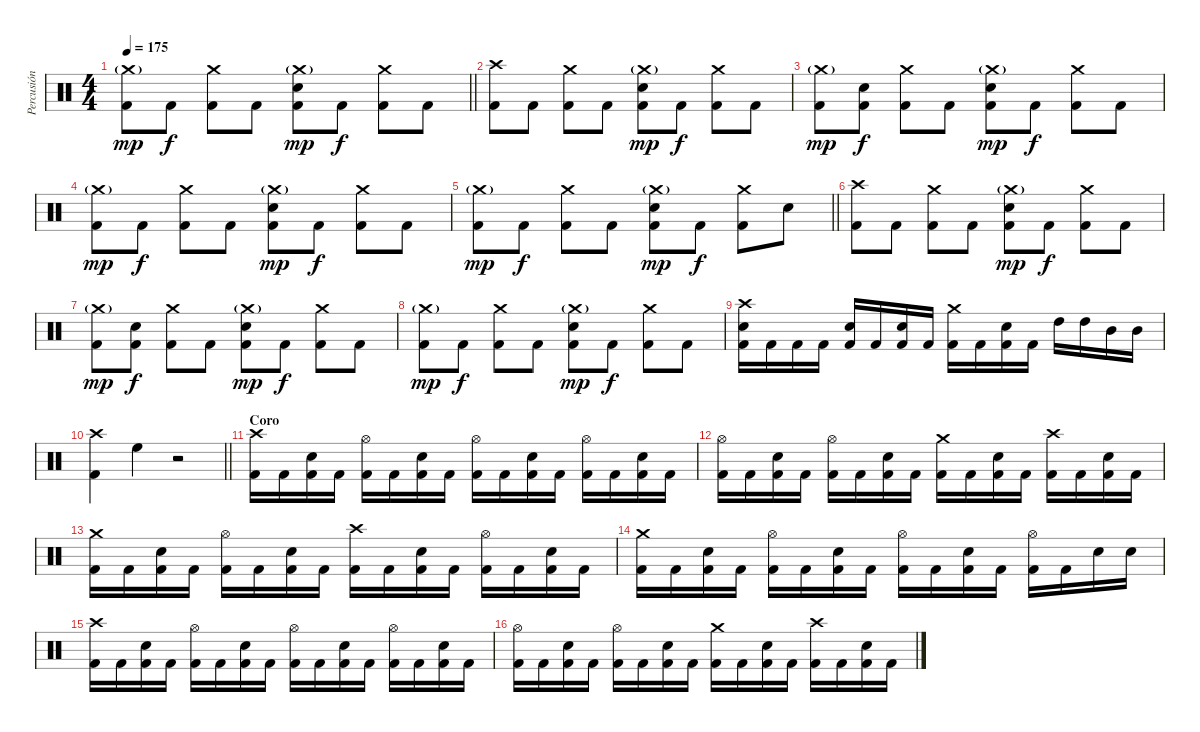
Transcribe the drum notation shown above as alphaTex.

\track ("Percusión" "Percusión") {instrument percussion}
\staff {score}
\articulation defaults
\ts (4 4)
\tempo 175
\clef neutral
\barLineRight lightlight
\ks c
("Crash medium (hit)"{g} "Kick (hit) 2").8{dy mp} "Kick (hit) 2".8{dy f} ("Crash medium (hit)" "Kick (hit) 2").8 "Kick (hit) 2".8 ("Crash medium (hit)"{g} "Snare (hit) 2" "Kick (hit) 2").8{dy mp} "Kick (hit) 2".8{dy f} ("Crash medium (hit)" "Kick (hit) 2").8 "Kick (hit) 2".8 |
\section ("" "")
("Crash high (hit)" "Kick (hit) 2").8 "Kick (hit) 2".8 ("Crash medium (hit)" "Kick (hit) 2").8 "Kick (hit) 2".8 ("Crash medium (hit)"{g} "Snare (hit) 2" "Kick (hit) 2").8{dy mp} "Kick (hit) 2".8{dy f} ("Crash medium (hit)" "Kick (hit) 2").8 "Kick (hit) 2".8 |
("Crash medium (hit)"{g} "Kick (hit) 2").8{dy mp} ("Snare (hit) 2" "Kick (hit) 2").8{dy f} ("Crash medium (hit)" "Kick (hit) 2").8 "Kick (hit) 2".8 ("Crash medium (hit)"{g} "Snare (hit) 2" "Kick (hit) 2").8{dy mp} "Kick (hit) 2".8{dy f} ("Crash medium (hit)" "Kick (hit) 2").8 "Kick (hit) 2".8 |
("Crash medium (hit)"{g} "Kick (hit) 2").8{dy mp} "Kick (hit) 2".8{dy f} ("Crash medium (hit)" "Kick (hit) 2").8 "Kick (hit) 2".8 ("Crash medium (hit)"{g} "Snare (hit) 2" "Kick (hit) 2").8{dy mp} "Kick (hit) 2".8{dy f} ("Crash medium (hit)" "Kick (hit) 2").8 "Kick (hit) 2".8 |
\barLineRight lightlight
("Crash medium (hit)"{g} "Kick (hit) 2").8{dy mp} "Kick (hit) 2".8{dy f} ("Crash medium (hit)" "Kick (hit) 2").8 "Kick (hit) 2".8 ("Crash medium (hit)"{g} "Snare (hit) 2" "Kick (hit) 2").8{dy mp} "Kick (hit) 2".8{dy f} ("Crash medium (hit)" "Kick (hit) 2").8 "Snare (hit) 2".8 |
\section ("" "")
("Crash high (hit)" "Kick (hit) 2").8 "Kick (hit) 2".8 ("Crash medium (hit)" "Kick (hit) 2").8 "Kick (hit) 2".8 ("Crash medium (hit)"{g} "Snare (hit) 2" "Kick (hit) 2").8{dy mp} "Kick (hit) 2".8{dy f} ("Crash medium (hit)" "Kick (hit) 2").8 "Kick (hit) 2".8 |
("Crash medium (hit)"{g} "Kick (hit) 2").8{dy mp} ("Snare (hit) 2" "Kick (hit) 2").8{dy f} ("Crash medium (hit)" "Kick (hit) 2").8 "Kick (hit) 2".8 ("Crash medium (hit)"{g} "Snare (hit) 2" "Kick (hit) 2").8{dy mp} "Kick (hit) 2".8{dy f} ("Crash medium (hit)" "Kick (hit) 2").8 "Kick (hit) 2".8 |
("Crash medium (hit)"{g} "Kick (hit) 2").8{dy mp} "Kick (hit) 2".8{dy f} ("Crash medium (hit)" "Kick (hit) 2").8 "Kick (hit) 2".8 ("Crash medium (hit)"{g} "Snare (hit) 2" "Kick (hit) 2").8{dy mp} "Kick (hit) 2".8{dy f} ("Crash medium (hit)" "Kick (hit) 2").8 "Kick (hit) 2".8 |
("Crash high (hit)" "Snare (hit) 2" "Kick (hit) 2").16 "Kick (hit) 2".16 "Kick (hit) 2".16 "Kick (hit) 2".16 ("Snare (hit) 2" "Kick (hit) 2").16 "Kick (hit) 2".16 ("Snare (hit) 2" "Kick (hit) 2").16 "Kick (hit) 2".16 ("Crash medium (hit)" "Kick (hit) 2").16 "Kick (hit) 2".16 ("Snare (hit) 2" "Kick (hit) 2").16 "Kick (hit) 2".16 "High Tom (hit)".16 "High Tom (hit)".16 "Mid Tom (hit)".16 "Mid Tom (hit)".16 |
\barLineRight lightlight
("Crash high (hit)" "Kick (hit) 2").4 "High Floor Tom (hit)".4 r.2 |
\section ("" "Coro")
("Crash high (hit)" "Kick (hit) 2").16 "Kick (hit) 2".16 ("Snare (hit) 2" "Kick (hit) 2").16 "Kick (hit) 2".16 ("Hi-Hat (open)" "Kick (hit) 2").16 "Kick (hit) 2".16 ("Snare (hit) 2" "Kick (hit) 2").16 "Kick (hit) 2".16 ("Hi-Hat (open)" "Kick (hit) 2").16 "Kick (hit) 2".16 ("Snare (hit) 2" "Kick (hit) 2").16 "Kick (hit) 2".16 ("Hi-Hat (open)" "Kick (hit) 2").16 "Kick (hit) 2".16 ("Snare (hit) 2" "Kick (hit) 2").16 "Kick (hit) 2".16 |
("Hi-Hat (open)" "Kick (hit) 2").16 "Kick (hit) 2".16 ("Snare (hit) 2" "Kick (hit) 2").16 "Kick (hit) 2".16 ("Hi-Hat (open)" "Kick (hit) 2").16 "Kick (hit) 2".16 ("Snare (hit) 2" "Kick (hit) 2").16 "Kick (hit) 2".16 ("Crash medium (hit)" "Kick (hit) 2").16 "Kick (hit) 2".16 ("Snare (hit) 2" "Kick (hit) 2").16 "Kick (hit) 2".16 ("Crash high (hit)" "Kick (hit) 2").16 "Kick (hit) 2".16 ("Snare (hit) 2" "Kick (hit) 2").16 "Kick (hit) 2".16 |
("Crash medium (hit)" "Kick (hit) 2").16 "Kick (hit) 2".16 ("Snare (hit) 2" "Kick (hit) 2").16 "Kick (hit) 2".16 ("Hi-Hat (open)" "Kick (hit) 2").16 "Kick (hit) 2".16 ("Snare (hit) 2" "Kick (hit) 2").16 "Kick (hit) 2".16 ("Crash high (hit)" "Kick (hit) 2").16 "Kick (hit) 2".16 ("Snare (hit) 2" "Kick (hit) 2").16 "Kick (hit) 2".16 ("Hi-Hat (open)" "Kick (hit) 2").16 "Kick (hit) 2".16 ("Snare (hit) 2" "Kick (hit) 2").16 "Kick (hit) 2".16 |
("Crash medium (hit)" "Kick (hit) 2").16 "Kick (hit) 2".16 ("Snare (hit) 2" "Kick (hit) 2").16 "Kick (hit) 2".16 ("Hi-Hat (open)" "Kick (hit) 2").16 "Kick (hit) 2".16 ("Snare (hit) 2" "Kick (hit) 2").16 "Kick (hit) 2".16 ("Hi-Hat (open)" "Kick (hit) 2").16 "Kick (hit) 2".16 ("Snare (hit) 2" "Kick (hit) 2").16 "Kick (hit) 2".16 ("Hi-Hat (open)" "Kick (hit) 2").16 "Kick (hit) 2".16 "Snare (hit) 2".16 "Snare (hit) 2".16 |
("Crash high (hit)" "Kick (hit) 2").16 "Kick (hit) 2".16 ("Snare (hit) 2" "Kick (hit) 2").16 "Kick (hit) 2".16 ("Hi-Hat (open)" "Kick (hit) 2").16 "Kick (hit) 2".16 ("Snare (hit) 2" "Kick (hit) 2").16 "Kick (hit) 2".16 ("Hi-Hat (open)" "Kick (hit) 2").16 "Kick (hit) 2".16 ("Snare (hit) 2" "Kick (hit) 2").16 "Kick (hit) 2".16 ("Hi-Hat (open)" "Kick (hit) 2").16 "Kick (hit) 2".16 ("Snare (hit) 2" "Kick (hit) 2").16 "Kick (hit) 2".16 |
("Hi-Hat (open)" "Kick (hit) 2").16 "Kick (hit) 2".16 ("Snare (hit) 2" "Kick (hit) 2").16 "Kick (hit) 2".16 ("Hi-Hat (open)" "Kick (hit) 2").16 "Kick (hit) 2".16 ("Snare (hit) 2" "Kick (hit) 2").16 "Kick (hit) 2".16 ("Crash medium (hit)" "Kick (hit) 2").16 "Kick (hit) 2".16 ("Snare (hit) 2" "Kick (hit) 2").16 "Kick (hit) 2".16 ("Crash high (hit)" "Kick (hit) 2").16 "Kick (hit) 2".16 ("Snare (hit) 2" "Kick (hit) 2").16 "Kick (hit) 2".16
